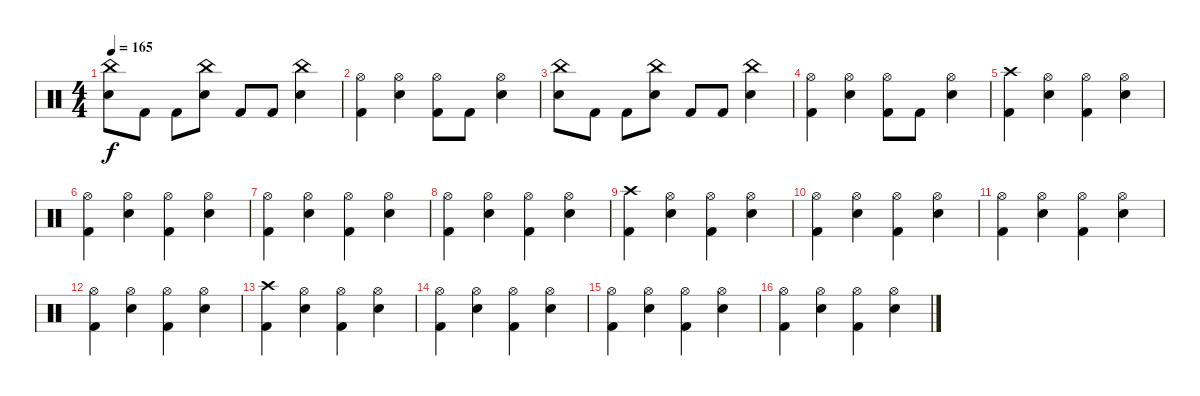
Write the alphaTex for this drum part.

\track "" {instrument percussion}
\staff {score}
\articulation defaults
\ts (4 4)
\tempo 165
\clef neutral
\ks c
("China (hit)" "Electric Snare (hit)").8{dy f} "Kick (hit) 2".8 "Kick (hit) 2".8 ("China (hit)" "Electric Snare (hit)").8 "Kick (hit) 2".8 "Kick (hit) 2".8 ("China (hit)" "Electric Snare (hit)").4 |
("Hi-Hat (open)" "Kick (hit) 2").4 ("Hi-Hat (open)" "Electric Snare (hit)").4 ("Kick (hit) 2" "Hi-Hat (open)").8 "Kick (hit) 2".8 ("Hi-Hat (open)" "Electric Snare (hit)").4 |
("China (hit)" "Electric Snare (hit)").8 "Kick (hit) 2".8 "Kick (hit) 2".8 ("China (hit)" "Electric Snare (hit)").8 "Kick (hit) 2".8 "Kick (hit) 2".8 ("China (hit)" "Electric Snare (hit)").4 |
("Hi-Hat (open)" "Kick (hit) 2").4 ("Hi-Hat (open)" "Electric Snare (hit)").4 ("Kick (hit) 2" "Hi-Hat (open)").8 "Kick (hit) 2".8 ("Hi-Hat (open)" "Electric Snare (hit)").4 |
("Kick (hit) 2" "Crash high (hit)").4 ("Electric Snare (hit)" "Hi-Hat (open)").4 ("Kick (hit) 2" "Hi-Hat (open)").4 ("Electric Snare (hit)" "Hi-Hat (open)").4 |
("Hi-Hat (open)" "Kick (hit) 2").4 ("Hi-Hat (open)" "Electric Snare (hit)").4 ("Hi-Hat (open)" "Kick (hit) 2").4 ("Hi-Hat (open)" "Electric Snare (hit)").4 |
("Hi-Hat (open)" "Kick (hit) 2").4 ("Hi-Hat (open)" "Electric Snare (hit)").4 ("Hi-Hat (open)" "Kick (hit) 2").4 ("Hi-Hat (open)" "Electric Snare (hit)").4 |
("Hi-Hat (open)" "Kick (hit) 2").4 ("Hi-Hat (open)" "Electric Snare (hit)").4 ("Hi-Hat (open)" "Kick (hit) 2").4 ("Hi-Hat (open)" "Electric Snare (hit)").4 |
("Kick (hit) 2" "Crash high (hit)").4 ("Electric Snare (hit)" "Hi-Hat (open)").4 ("Kick (hit) 2" "Hi-Hat (open)").4 ("Electric Snare (hit)" "Hi-Hat (open)").4 |
("Hi-Hat (open)" "Kick (hit) 2").4 ("Hi-Hat (open)" "Electric Snare (hit)").4 ("Hi-Hat (open)" "Kick (hit) 2").4 ("Hi-Hat (open)" "Electric Snare (hit)").4 |
("Hi-Hat (open)" "Kick (hit) 2").4 ("Hi-Hat (open)" "Electric Snare (hit)").4 ("Hi-Hat (open)" "Kick (hit) 2").4 ("Hi-Hat (open)" "Electric Snare (hit)").4 |
("Hi-Hat (open)" "Kick (hit) 2").4 ("Hi-Hat (open)" "Electric Snare (hit)").4 ("Hi-Hat (open)" "Kick (hit) 2").4 ("Hi-Hat (open)" "Electric Snare (hit)").4 |
("Kick (hit) 2" "Crash high (hit)").4 ("Electric Snare (hit)" "Hi-Hat (open)").4 ("Kick (hit) 2" "Hi-Hat (open)").4 ("Electric Snare (hit)" "Hi-Hat (open)").4 |
("Hi-Hat (open)" "Kick (hit) 2").4 ("Hi-Hat (open)" "Electric Snare (hit)").4 ("Hi-Hat (open)" "Kick (hit) 2").4 ("Hi-Hat (open)" "Electric Snare (hit)").4 |
("Hi-Hat (open)" "Kick (hit) 2").4 ("Hi-Hat (open)" "Electric Snare (hit)").4 ("Hi-Hat (open)" "Kick (hit) 2").4 ("Hi-Hat (open)" "Electric Snare (hit)").4 |
("Hi-Hat (open)" "Kick (hit) 2").4 ("Hi-Hat (open)" "Electric Snare (hit)").4 ("Hi-Hat (open)" "Kick (hit) 2").4 ("Hi-Hat (open)" "Electric Snare (hit)").4
